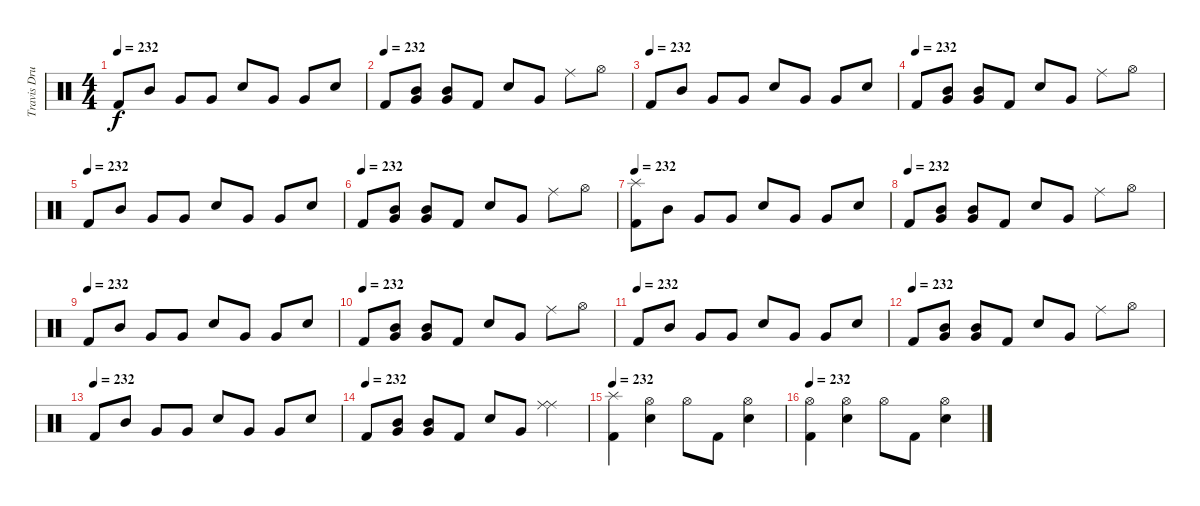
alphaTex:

\track ("Travis Drums" "Travis Dru") {instrument percussion}
\staff {score}
\articulation defaults
\ts (4 4)
\tempo 232
\clef neutral
\ks c "Kick (hit) 2".8{dy f} "Mid Tom (hit)".8 "Very Low Tom (hit)".8 "Very Low Tom (hit)".8 "Electric Snare (hit)".8 "Very Low Tom (hit)".8 "Very Low Tom (hit)".8 "Electric Snare (hit)".8
|
\tempo (232)
"Kick (hit) 2".8 ("Mid Tom (hit)" "Very Low Tom (hit)").8 ("Mid Tom (hit)" "Very Low Tom (hit)").8 "Kick (hit) 2".8 "Electric Snare (hit)".8 "Very Low Tom (hit)".8 "Ride (middle)".8 "Hi-Hat (open)".8 |
\tempo (232)
"Kick (hit) 2".8 "Mid Tom (hit)".8 "Very Low Tom (hit)".8 "Very Low Tom (hit)".8 "Electric Snare (hit)".8 "Very Low Tom (hit)".8 "Very Low Tom (hit)".8 "Electric Snare (hit)".8 |
\tempo (232)
"Kick (hit) 2".8 ("Mid Tom (hit)" "Very Low Tom (hit)").8 ("Mid Tom (hit)" "Very Low Tom (hit)").8 "Kick (hit) 2".8 "Electric Snare (hit)".8 "Very Low Tom (hit)".8 "Ride (middle)".8 "Hi-Hat (open)".8 |
\tempo (232)
"Kick (hit) 2".8 "Mid Tom (hit)".8 "Very Low Tom (hit)".8 "Very Low Tom (hit)".8 "Electric Snare (hit)".8 "Very Low Tom (hit)".8 "Very Low Tom (hit)".8 "Electric Snare (hit)".8 |
\tempo (232)
"Kick (hit) 2".8 ("Mid Tom (hit)" "Very Low Tom (hit)").8 ("Mid Tom (hit)" "Very Low Tom (hit)").8 "Kick (hit) 2".8 "Electric Snare (hit)".8 "Very Low Tom (hit)".8 "Ride (middle)".8 "Hi-Hat (open)".8 |
\tempo 232
("Splash (hit)" "Kick (hit) 2").8 "Mid Tom (hit)".8 "Very Low Tom (hit)".8 "Very Low Tom (hit)".8 "Electric Snare (hit)".8 "Very Low Tom (hit)".8 "Very Low Tom (hit)".8 "Electric Snare (hit)".8 |
\tempo (232)
"Kick (hit) 2".8 ("Mid Tom (hit)" "Very Low Tom (hit)").8 ("Mid Tom (hit)" "Very Low Tom (hit)").8 "Kick (hit) 2".8 "Electric Snare (hit)".8 "Very Low Tom (hit)".8 "Ride (middle)".8 "Hi-Hat (open)".8 |
\tempo (232)
"Kick (hit) 2".8 "Mid Tom (hit)".8 "Very Low Tom (hit)".8 "Very Low Tom (hit)".8 "Electric Snare (hit)".8 "Very Low Tom (hit)".8 "Very Low Tom (hit)".8 "Electric Snare (hit)".8 |
\tempo (232)
"Kick (hit) 2".8 ("Mid Tom (hit)" "Very Low Tom (hit)").8 ("Mid Tom (hit)" "Very Low Tom (hit)").8 "Kick (hit) 2".8 "Electric Snare (hit)".8 "Very Low Tom (hit)".8 "Ride (middle)".8 "Hi-Hat (open)".8 |
\tempo (232)
"Kick (hit) 2".8 "Mid Tom (hit)".8 "Very Low Tom (hit)".8 "Very Low Tom (hit)".8 "Electric Snare (hit)".8 "Very Low Tom (hit)".8 "Very Low Tom (hit)".8 "Electric Snare (hit)".8 |
\tempo (232)
"Kick (hit) 2".8 ("Mid Tom (hit)" "Very Low Tom (hit)").8 ("Mid Tom (hit)" "Very Low Tom (hit)").8 "Kick (hit) 2".8 "Electric Snare (hit)".8 "Very Low Tom (hit)".8 "Ride (middle)".8 "Hi-Hat (open)".8 |
\tempo (232)
"Kick (hit) 2".8 "Mid Tom (hit)".8 "Very Low Tom (hit)".8 "Very Low Tom (hit)".8 "Electric Snare (hit)".8 "Very Low Tom (hit)".8 "Very Low Tom (hit)".8 "Electric Snare (hit)".8 |
\tempo (232)
"Kick (hit) 2".8 ("Mid Tom (hit)" "Very Low Tom (hit)").8 ("Mid Tom (hit)" "Very Low Tom (hit)").8 "Kick (hit) 2".8 "Electric Snare (hit)".8 "Very Low Tom (hit)".8 ("Ride (middle)" "Ride (middle)").4 |
\tempo 232
("Splash (hit)" "Kick (hit) 2").4 ("Hi-Hat (open)" "Electric Snare (hit)").4 "Hi-Hat (open)".8 "Kick (hit) 2".8 ("Hi-Hat (open)" "Electric Snare (hit)").4 |
\tempo 232
("Hi-Hat (open)" "Kick (hit) 2").4 ("Hi-Hat (open)" "Electric Snare (hit)").4 "Hi-Hat (open)".8 "Kick (hit) 2".8 ("Hi-Hat (open)" "Electric Snare (hit)").4
